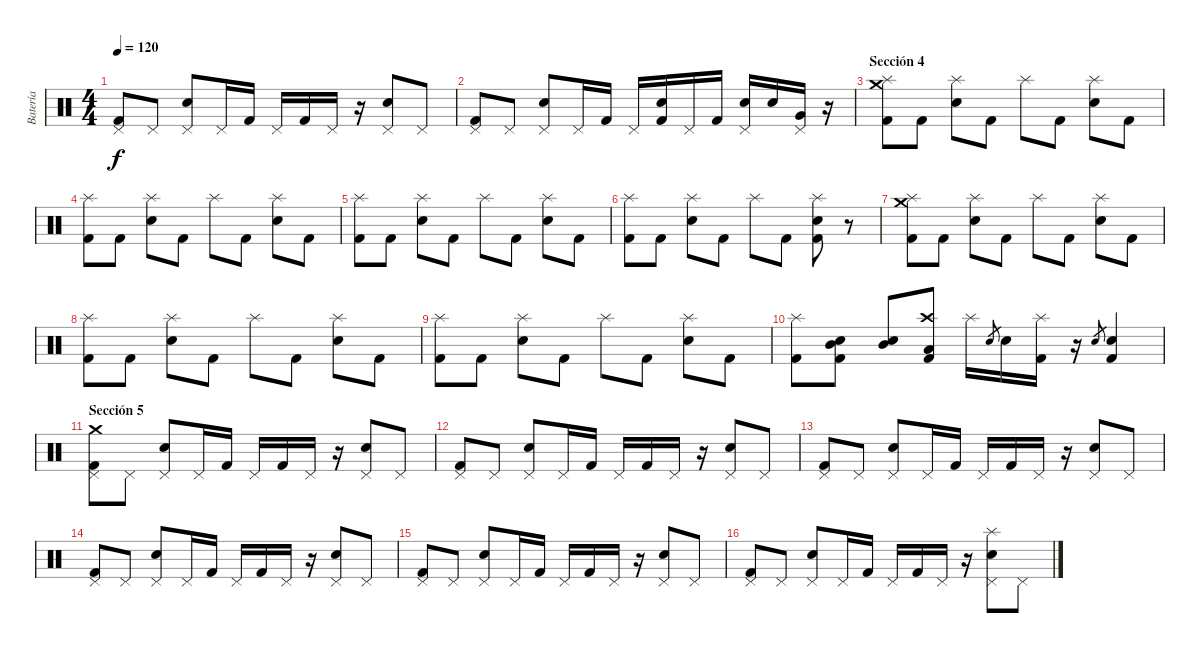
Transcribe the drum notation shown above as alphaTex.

\track ("Batería" "Batería") {instrument percussion}
\staff {score}
\articulation defaults
\ts (4 4)
\tempo 120
\clef neutral
\ks c
("Pedal Hi-Hat (hit)" "Kick (hit) 2").8{dy f} "Pedal Hi-Hat (hit)".8 ("Pedal Hi-Hat (hit)" "Electric Snare (hit)").8 "Pedal Hi-Hat (hit)".16 "Kick (hit) 2".16 "Pedal Hi-Hat (hit)".16 "Kick (hit) 2".16 "Pedal Hi-Hat (hit)".16 r.16 ("Pedal Hi-Hat (hit)" "Electric Snare (hit)").8 "Pedal Hi-Hat (hit)".8 |
("Pedal Hi-Hat (hit)" "Kick (hit) 2").8 "Pedal Hi-Hat (hit)".8 ("Pedal Hi-Hat (hit)" "Electric Snare (hit)").8 "Pedal Hi-Hat (hit)".16 "Kick (hit) 2".16 "Pedal Hi-Hat (hit)".16 ("Electric Snare (hit)" "Kick (hit) 2").16 "Pedal Hi-Hat (hit)".16 "Kick (hit) 2".16 ("Pedal Hi-Hat (hit)" "Electric Snare (hit)").16 "Electric Snare (hit)".16 ("Pedal Hi-Hat (hit)" "Very Low Tom (hit)").16 r.16 |
\section ("" "Sección 4")
("Splash (hit)" "Crash medium (hit)" "Kick (hit) 2").8 "Kick (hit) 2".8 ("Splash (hit)" "Electric Snare (hit)").8 "Kick (hit) 2".8 "Splash (hit)".8 "Kick (hit) 2".8 ("Splash (hit)" "Electric Snare (hit)").8 "Kick (hit) 2".8 |
("Splash (hit)" "Kick (hit) 2").8 "Kick (hit) 2".8 ("Splash (hit)" "Electric Snare (hit)").8 "Kick (hit) 2".8 "Splash (hit)".8 "Kick (hit) 2".8 ("Splash (hit)" "Electric Snare (hit)").8 "Kick (hit) 2".8 |
("Splash (hit)" "Kick (hit) 2").8 "Kick (hit) 2".8 ("Splash (hit)" "Electric Snare (hit)").8 "Kick (hit) 2".8 "Splash (hit)".8 "Kick (hit) 2".8 ("Splash (hit)" "Electric Snare (hit)").8 "Kick (hit) 2".8 |
("Splash (hit)" "Kick (hit) 2").8 "Kick (hit) 2".8 ("Splash (hit)" "Electric Snare (hit)").8 "Kick (hit) 2".8 "Splash (hit)".8 "Kick (hit) 2".8 ("Splash (hit)" "Electric Snare (hit)" "Kick (hit) 2").8 r.8 |
("Splash (hit)" "Crash medium (hit)" "Kick (hit) 2").8 "Kick (hit) 2".8 ("Splash (hit)" "Electric Snare (hit)").8 "Kick (hit) 2".8 "Splash (hit)".8 "Kick (hit) 2".8 ("Splash (hit)" "Electric Snare (hit)").8 "Kick (hit) 2".8 |
("Splash (hit)" "Kick (hit) 2").8 "Kick (hit) 2".8 ("Splash (hit)" "Electric Snare (hit)").8 "Kick (hit) 2".8 "Splash (hit)".8 "Kick (hit) 2".8 ("Splash (hit)" "Electric Snare (hit)").8 "Kick (hit) 2".8 |
("Splash (hit)" "Kick (hit) 2").8 "Kick (hit) 2".8 ("Splash (hit)" "Electric Snare (hit)").8 "Kick (hit) 2".8 "Splash (hit)".8 "Kick (hit) 2".8 ("Splash (hit)" "Electric Snare (hit)").8 "Kick (hit) 2".8 |
("Splash (hit)" "Kick (hit) 2").8 ("Electric Snare (hit)" "Mid Tom (hit)" "Kick (hit) 2").8 ("Electric Snare (hit)" "Mid Tom (hit)").8 ("Crash high (hit)" "Low Tom (hit)" "Kick (hit) 2").8 "Splash (hit)".16 "Electric Snare (hit)".8{gr} "Electric Snare (hit)".16 ("Splash (hit)" "Kick (hit) 2").16 r.16 "Electric Snare (hit)".8{gr} ("Electric Snare (hit)" "Kick (hit) 2").4 |
\section ("" "Sección 5")
("Pedal Hi-Hat (hit)" "Crash medium (hit)" "Kick (hit) 2").8 "Pedal Hi-Hat (hit)".8 ("Pedal Hi-Hat (hit)" "Electric Snare (hit)").8 "Pedal Hi-Hat (hit)".16 "Kick (hit) 2".16 "Pedal Hi-Hat (hit)".16 "Kick (hit) 2".16 "Pedal Hi-Hat (hit)".16 r.16 ("Pedal Hi-Hat (hit)" "Electric Snare (hit)").8 "Pedal Hi-Hat (hit)".8 |
("Pedal Hi-Hat (hit)" "Kick (hit) 2").8 "Pedal Hi-Hat (hit)".8 ("Pedal Hi-Hat (hit)" "Electric Snare (hit)").8 "Pedal Hi-Hat (hit)".16 "Kick (hit) 2".16 "Pedal Hi-Hat (hit)".16 "Kick (hit) 2".16 "Pedal Hi-Hat (hit)".16 r.16 ("Pedal Hi-Hat (hit)" "Electric Snare (hit)").8 "Pedal Hi-Hat (hit)".8 |
("Pedal Hi-Hat (hit)" "Kick (hit) 2").8 "Pedal Hi-Hat (hit)".8 ("Pedal Hi-Hat (hit)" "Electric Snare (hit)").8 "Pedal Hi-Hat (hit)".16 "Kick (hit) 2".16 "Pedal Hi-Hat (hit)".16 "Kick (hit) 2".16 "Pedal Hi-Hat (hit)".16 r.16 ("Pedal Hi-Hat (hit)" "Electric Snare (hit)").8 "Pedal Hi-Hat (hit)".8 |
("Pedal Hi-Hat (hit)" "Kick (hit) 2").8 "Pedal Hi-Hat (hit)".8 ("Pedal Hi-Hat (hit)" "Electric Snare (hit)").8 "Pedal Hi-Hat (hit)".16 "Kick (hit) 2".16 "Pedal Hi-Hat (hit)".16 "Kick (hit) 2".16 "Pedal Hi-Hat (hit)".16 r.16 ("Pedal Hi-Hat (hit)" "Electric Snare (hit)").8 "Pedal Hi-Hat (hit)".8 |
("Pedal Hi-Hat (hit)" "Kick (hit) 2").8 "Pedal Hi-Hat (hit)".8 ("Pedal Hi-Hat (hit)" "Electric Snare (hit)").8 "Pedal Hi-Hat (hit)".16 "Kick (hit) 2".16 "Pedal Hi-Hat (hit)".16 "Kick (hit) 2".16 "Pedal Hi-Hat (hit)".16 r.16 ("Pedal Hi-Hat (hit)" "Electric Snare (hit)").8 "Pedal Hi-Hat (hit)".8 |
("Pedal Hi-Hat (hit)" "Kick (hit) 2").8 "Pedal Hi-Hat (hit)".8 ("Pedal Hi-Hat (hit)" "Electric Snare (hit)").8 "Pedal Hi-Hat (hit)".16 "Kick (hit) 2".16 "Pedal Hi-Hat (hit)".16 "Kick (hit) 2".16 "Pedal Hi-Hat (hit)".16 r.16 ("Pedal Hi-Hat (hit)" "Splash (hit)" "Electric Snare (hit)").8 "Pedal Hi-Hat (hit)".8
